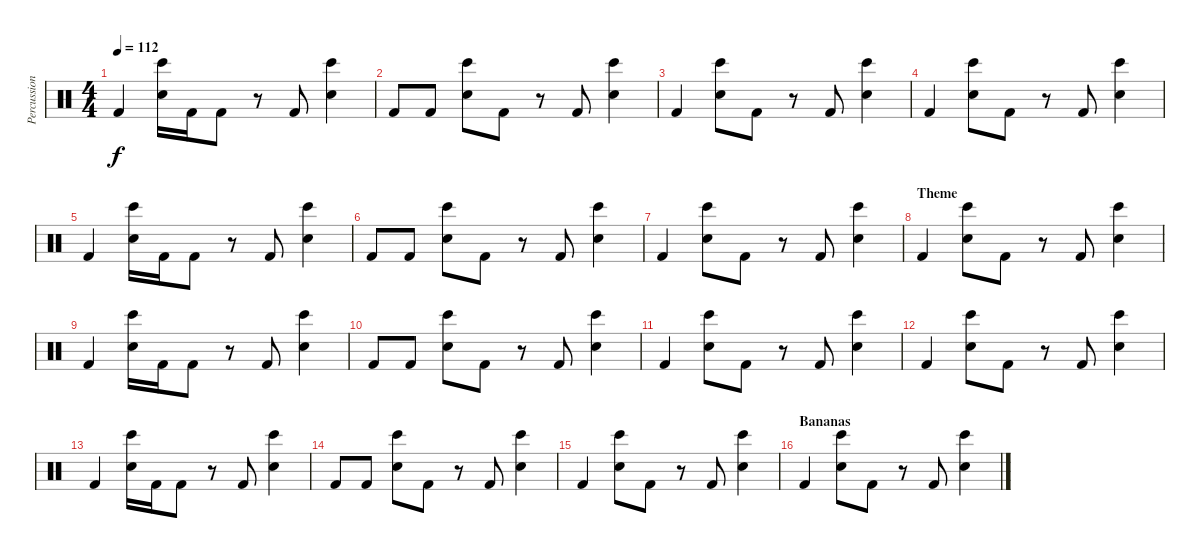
\track ("Percussion" "Percussion") {instrument percussion}
\staff {score}
\articulation defaults
\ts (4 4)
\tempo 112
\clef neutral
\ks c "Kick (hit) 2".4{dy f}
("Bongo High (hit)" "Hand Clap (hit)").16 "Kick (hit) 2".16 "Kick (hit) 2".8 r.8 "Kick (hit) 2".8 ("Bongo High (hit)" "Hand Clap (hit)").4 |
"Kick (hit) 2".8 "Kick (hit) 2".8 ("Bongo High (hit)" "Hand Clap (hit)").8 "Kick (hit) 2".8 r.8 "Kick (hit) 2".8 ("Bongo High (hit)" "Hand Clap (hit)").4 |
"Kick (hit) 2".4 ("Bongo High (hit)" "Hand Clap (hit)").8 "Kick (hit) 2".8 r.8 "Kick (hit) 2".8 ("Bongo High (hit)" "Hand Clap (hit)").4 |
"Kick (hit) 2".4 ("Bongo High (hit)" "Hand Clap (hit)").8 "Kick (hit) 2".8 r.8 "Kick (hit) 2".8 ("Bongo High (hit)" "Hand Clap (hit)").4 |
"Kick (hit) 2".4 ("Bongo High (hit)" "Hand Clap (hit)").16 "Kick (hit) 2".16 "Kick (hit) 2".8 r.8 "Kick (hit) 2".8 ("Bongo High (hit)" "Hand Clap (hit)").4 |
"Kick (hit) 2".8 "Kick (hit) 2".8 ("Bongo High (hit)" "Hand Clap (hit)").8 "Kick (hit) 2".8 r.8 "Kick (hit) 2".8 ("Bongo High (hit)" "Hand Clap (hit)").4 |
"Kick (hit) 2".4 ("Bongo High (hit)" "Hand Clap (hit)").8 "Kick (hit) 2".8 r.8 "Kick (hit) 2".8 ("Bongo High (hit)" "Hand Clap (hit)").4 |
\section ("" "Theme")
"Kick (hit) 2".4 ("Bongo High (hit)" "Hand Clap (hit)").8 "Kick (hit) 2".8 r.8 "Kick (hit) 2".8 ("Bongo High (hit)" "Hand Clap (hit)").4 |
"Kick (hit) 2".4 ("Bongo High (hit)" "Hand Clap (hit)").16 "Kick (hit) 2".16 "Kick (hit) 2".8 r.8 "Kick (hit) 2".8 ("Bongo High (hit)" "Hand Clap (hit)").4 |
"Kick (hit) 2".8 "Kick (hit) 2".8 ("Bongo High (hit)" "Hand Clap (hit)").8 "Kick (hit) 2".8 r.8 "Kick (hit) 2".8 ("Bongo High (hit)" "Hand Clap (hit)").4 |
"Kick (hit) 2".4 ("Bongo High (hit)" "Hand Clap (hit)").8 "Kick (hit) 2".8 r.8 "Kick (hit) 2".8 ("Bongo High (hit)" "Hand Clap (hit)").4 |
"Kick (hit) 2".4 ("Bongo High (hit)" "Hand Clap (hit)").8 "Kick (hit) 2".8 r.8 "Kick (hit) 2".8 ("Bongo High (hit)" "Hand Clap (hit)").4 |
"Kick (hit) 2".4 ("Bongo High (hit)" "Hand Clap (hit)").16 "Kick (hit) 2".16 "Kick (hit) 2".8 r.8 "Kick (hit) 2".8 ("Bongo High (hit)" "Hand Clap (hit)").4 |
"Kick (hit) 2".8 "Kick (hit) 2".8 ("Bongo High (hit)" "Hand Clap (hit)").8 "Kick (hit) 2".8 r.8 "Kick (hit) 2".8 ("Bongo High (hit)" "Hand Clap (hit)").4 |
"Kick (hit) 2".4 ("Bongo High (hit)" "Hand Clap (hit)").8 "Kick (hit) 2".8 r.8 "Kick (hit) 2".8 ("Bongo High (hit)" "Hand Clap (hit)").4 |
\section ("" "Bananas")
"Kick (hit) 2".4 ("Bongo High (hit)" "Hand Clap (hit)").8 "Kick (hit) 2".8 r.8 "Kick (hit) 2".8 ("Bongo High (hit)" "Hand Clap (hit)").4
